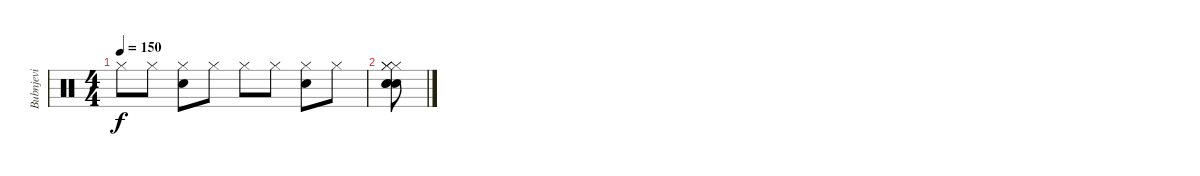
\track ("Bubnjevi" "Bubnjevi") {instrument percussion}
\staff {score}
\articulation defaults
\ts (4 4)
\tempo 150
\clef neutral
\ks c "Hi-Hat (closed)".8{dy f} "Hi-Hat (closed)".8
("Hi-Hat (closed)" "Snare (hit) 2").8 "Hi-Hat (closed)".8 "Hi-Hat (closed)".8 "Hi-Hat (closed)".8 ("Hi-Hat (closed)" "Snare (hit) 2").8 "Hi-Hat (closed)".8 |
("Hi-Hat (closed)" "Hi-Hat (closed)" "Hi-Hat (closed)" "Snare (hit) 2" "Snare (hit) 2" "Snare (hit) 2").8
